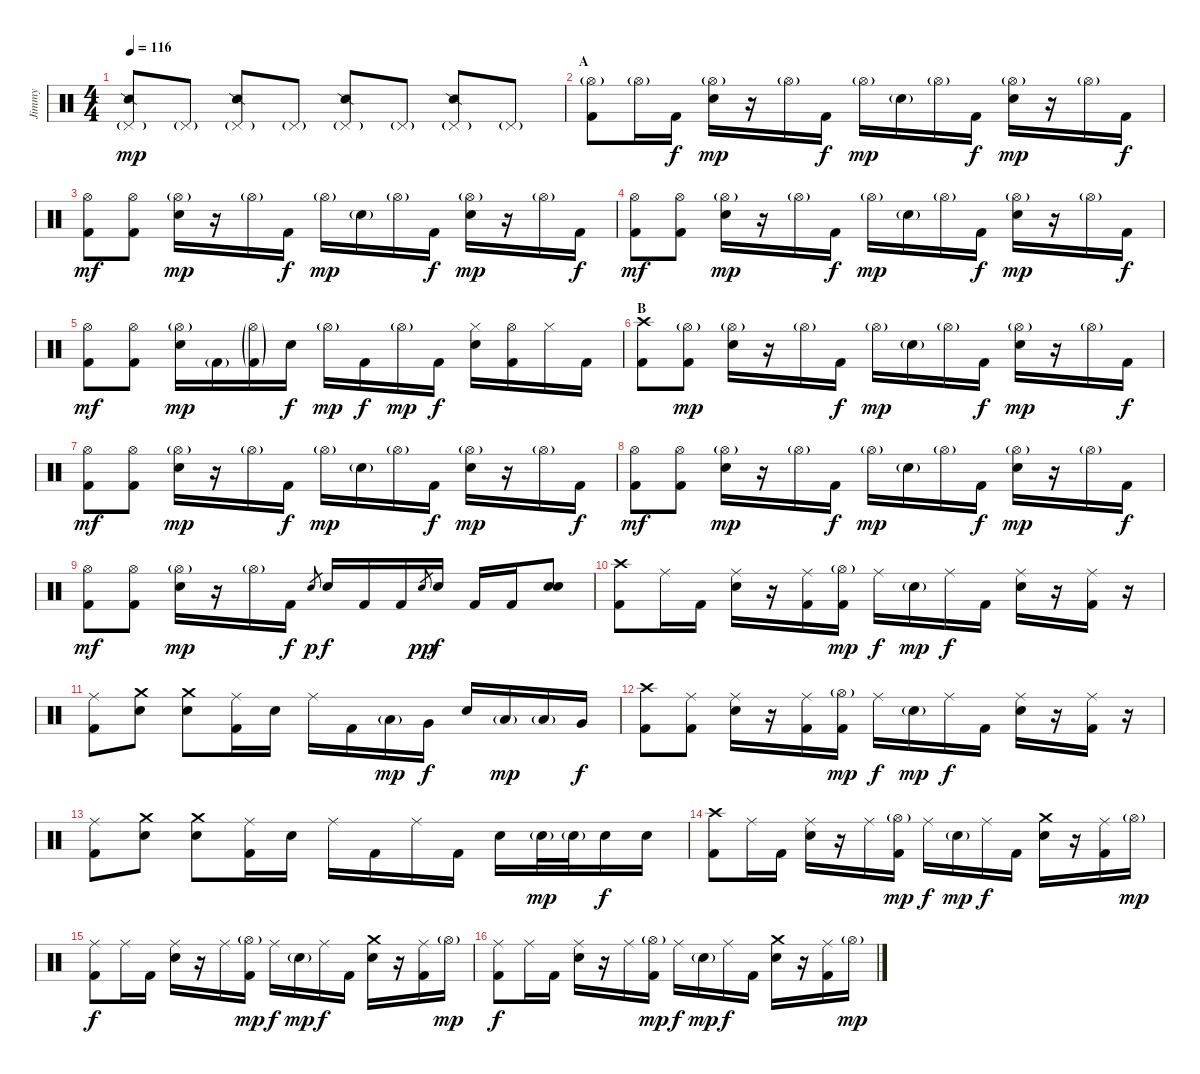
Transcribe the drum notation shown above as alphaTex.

\track ("Jimmy" "Jimmy") {instrument percussion}
\staff {score}
\articulation defaults
\ts (4 4)
\tempo 116
\clef neutral
\ks c
("Pedal Hi-Hat (hit)"{g} "Snare (side stick) 2").8{dy mp} "Pedal Hi-Hat (hit)"{g}.8 ("Pedal Hi-Hat (hit)"{g} "Snare (side stick) 2").8 "Pedal Hi-Hat (hit)"{g}.8 ("Pedal Hi-Hat (hit)"{g} "Snare (side stick) 2").8 "Pedal Hi-Hat (hit)"{g}.8 ("Pedal Hi-Hat (hit)"{g} "Snare (side stick) 2").8 "Pedal Hi-Hat (hit)"{g}.8 |
\section ("" "A")
("Hi-Hat (open)"{g} "Kick (hit) 2").8 "Hi-Hat (open)"{g}.16 "Kick (hit) 2".16{dy f} ("Hi-Hat (open)"{g} "Electric Snare (hit)").16{dy mp} r.16 "Hi-Hat (open)"{g}.16 "Kick (hit) 2".16{dy f} "Hi-Hat (open)"{g}.16{dy mp} "Electric Snare (hit)"{g}.16 "Hi-Hat (open)"{g}.16 "Kick (hit) 2".16{dy f} ("Hi-Hat (open)"{g} "Electric Snare (hit)").16{dy mp} r.16 "Hi-Hat (open)"{g}.16 "Kick (hit) 2".16{dy f} |
("Hi-Hat (open)" "Kick (hit) 2").8{dy mf} ("Hi-Hat (open)" "Kick (hit) 2").8 ("Hi-Hat (open)"{g} "Electric Snare (hit)").16{dy mp} r.16 "Hi-Hat (open)"{g}.16 "Kick (hit) 2".16{dy f} "Hi-Hat (open)"{g}.16{dy mp} "Electric Snare (hit)"{g}.16 "Hi-Hat (open)"{g}.16 "Kick (hit) 2".16{dy f} ("Hi-Hat (open)"{g} "Electric Snare (hit)").16{dy mp} r.16 "Hi-Hat (open)"{g}.16 "Kick (hit) 2".16{dy f} |
("Hi-Hat (open)" "Kick (hit) 2").8{dy mf} ("Hi-Hat (open)" "Kick (hit) 2").8 ("Hi-Hat (open)"{g} "Electric Snare (hit)").16{dy mp} r.16 "Hi-Hat (open)"{g}.16 "Kick (hit) 2".16{dy f} "Hi-Hat (open)"{g}.16{dy mp} "Electric Snare (hit)"{g}.16 "Hi-Hat (open)"{g}.16 "Kick (hit) 2".16{dy f} ("Hi-Hat (open)"{g} "Electric Snare (hit)").16{dy mp} r.16 "Hi-Hat (open)"{g}.16 "Kick (hit) 2".16{dy f} |
("Hi-Hat (open)" "Kick (hit) 2").8{dy mf} ("Hi-Hat (open)" "Kick (hit) 2").8 ("Hi-Hat (open)"{g} "Electric Snare (hit)").16{dy mp} "Kick (hit) 2"{g}.16 ("Hi-Hat (open)"{g} "Kick (hit) 2"{g}).16 "Electric Snare (hit)".16{dy f} "Hi-Hat (open)"{g}.16{dy mp} "Kick (hit) 2".16{dy f} "Hi-Hat (open)"{g}.16{dy mp} "Kick (hit) 2".16{dy f} ("Hi-Hat (closed)" "Electric Snare (hit)").16 ("Hi-Hat (open)" "Kick (hit) 2").16 "Hi-Hat (closed)".16 "Kick (hit) 2".16 |
\section ("" "B")
("Crash high (hit)" "Kick (hit) 2").8 ("Hi-Hat (open)"{g} "Kick (hit) 2").8{dy mp} ("Hi-Hat (open)"{g} "Electric Snare (hit)").16 r.16 "Hi-Hat (open)"{g}.16 "Kick (hit) 2".16{dy f} "Hi-Hat (open)"{g}.16{dy mp} "Electric Snare (hit)"{g}.16 "Hi-Hat (open)"{g}.16 "Kick (hit) 2".16{dy f} ("Hi-Hat (open)"{g} "Electric Snare (hit)").16{dy mp} r.16 "Hi-Hat (open)"{g}.16 "Kick (hit) 2".16{dy f} |
("Hi-Hat (open)" "Kick (hit) 2").8{dy mf} ("Hi-Hat (open)" "Kick (hit) 2").8 ("Hi-Hat (open)"{g} "Electric Snare (hit)").16{dy mp} r.16 "Hi-Hat (open)"{g}.16 "Kick (hit) 2".16{dy f} "Hi-Hat (open)"{g}.16{dy mp} "Electric Snare (hit)"{g}.16 "Hi-Hat (open)"{g}.16 "Kick (hit) 2".16{dy f} ("Hi-Hat (open)"{g} "Electric Snare (hit)").16{dy mp} r.16 "Hi-Hat (open)"{g}.16 "Kick (hit) 2".16{dy f} |
("Hi-Hat (open)" "Kick (hit) 2").8{dy mf} ("Hi-Hat (open)" "Kick (hit) 2").8 ("Hi-Hat (open)"{g} "Electric Snare (hit)").16{dy mp} r.16 "Hi-Hat (open)"{g}.16 "Kick (hit) 2".16{dy f} "Hi-Hat (open)"{g}.16{dy mp} "Electric Snare (hit)"{g}.16 "Hi-Hat (open)"{g}.16 "Kick (hit) 2".16{dy f} ("Hi-Hat (open)"{g} "Electric Snare (hit)").16{dy mp} r.16 "Hi-Hat (open)"{g}.16 "Kick (hit) 2".16{dy f} |
("Hi-Hat (open)" "Kick (hit) 2").8{dy mf} ("Hi-Hat (open)" "Kick (hit) 2").8 ("Hi-Hat (open)"{g} "Electric Snare (hit)").16{dy mp} r.16 "Hi-Hat (open)"{g}.16 "Kick (hit) 2".16{dy f} "Electric Snare (hit)".8{gr dy p} "Electric Snare (hit)".16{dy f} "Kick (hit) 2".16 "Kick (hit) 2".16 "Electric Snare (hit)".8{gr dy pp} "Electric Snare (hit)".16{dy f} "Kick (hit) 2".16 "Kick (hit) 2".16 ("Electric Snare (hit)" "Electric Snare (hit)").8 |
("Crash high (hit)" "Kick (hit) 2").8 "Ride (middle)".16 "Kick (hit) 2".16 ("Ride (middle)" "Electric Snare (hit)").16 r.16 ("Ride (middle)" "Kick (hit) 2").16 ("Hi-Hat (open)"{g} "Kick (hit) 2").16{dy mp} "Ride (middle)".16{dy f} "Electric Snare (hit)"{g}.16{dy mp} "Ride (middle)".16{dy f} "Kick (hit) 2".16 ("Ride (middle)" "Electric Snare (hit)").16 r.16 ("Ride (middle)" "Kick (hit) 2").16 r.16 |
("Ride (middle)" "Kick (hit) 2").8 ("Crash medium (hit)" "Electric Snare (hit)").8 ("Crash medium (hit)" "Electric Snare (hit)").8 ("Ride (middle)" "Kick (hit) 2").16 "Electric Snare (hit)".16 "Ride (middle)".16 "Kick (hit) 2".16 "Low Tom (hit)"{g}.16{dy mp} "Very Low Tom (hit)".16{dy f} "Electric Snare (hit)".16 "Low Tom (hit)"{g}.16{dy mp} "Low Tom (hit)"{g}.16 "Very Low Tom (hit)".16{dy f} |
("Crash high (hit)" "Kick (hit) 2").8 ("Ride (middle)" "Kick (hit) 2").8 ("Ride (middle)" "Electric Snare (hit)").16 r.16 ("Ride (middle)" "Kick (hit) 2").16 ("Hi-Hat (open)"{g} "Kick (hit) 2").16{dy mp} "Ride (middle)".16{dy f} "Electric Snare (hit)"{g}.16{dy mp} "Ride (middle)".16{dy f} "Kick (hit) 2".16 ("Ride (middle)" "Electric Snare (hit)").16 r.16 ("Ride (middle)" "Kick (hit) 2").16 r.16 |
("Ride (middle)" "Kick (hit) 2").8 ("Crash medium (hit)" "Electric Snare (hit)").8 ("Crash medium (hit)" "Electric Snare (hit)").8 ("Ride (middle)" "Kick (hit) 2").16 "Electric Snare (hit)".16 "Ride (middle)".16 "Kick (hit) 2".16 "Ride (middle)".16 "Kick (hit) 2".16 "Electric Snare (hit)".16 "Electric Snare (hit)"{g}.32{dy mp} "Electric Snare (hit)"{g}.32 "Electric Snare (hit)".16{dy f} "Electric Snare (hit)".16 |
("Crash high (hit)" "Kick (hit) 2").8 "Ride (middle)".16 "Kick (hit) 2".16 ("Ride (middle)" "Electric Snare (hit)").16 r.16 "Ride (middle)".16 ("Hi-Hat (open)"{g} "Kick (hit) 2").16{dy mp} "Ride (middle)".16{dy f} "Electric Snare (hit)"{g}.16{dy mp} "Ride (middle)".16{dy f} "Kick (hit) 2".16 ("Crash medium (hit)" "Electric Snare (hit)").16 r.16 ("Ride (middle)" "Kick (hit) 2").16 "Hi-Hat (open)"{g}.16{dy mp} |
("Ride (middle)" "Kick (hit) 2").8{dy f} "Ride (middle)".16 "Kick (hit) 2".16 ("Ride (middle)" "Electric Snare (hit)").16 r.16 "Ride (middle)".16 ("Hi-Hat (open)"{g} "Kick (hit) 2").16{dy mp} "Ride (middle)".16{dy f} "Electric Snare (hit)"{g}.16{dy mp} "Ride (middle)".16{dy f} "Kick (hit) 2".16 ("Crash medium (hit)" "Electric Snare (hit)").16 r.16 ("Ride (middle)" "Kick (hit) 2").16 "Hi-Hat (open)"{g}.16{dy mp} |
("Ride (middle)" "Kick (hit) 2").8{dy f} "Ride (middle)".16 "Kick (hit) 2".16 ("Ride (middle)" "Electric Snare (hit)").16 r.16 "Ride (middle)".16 ("Hi-Hat (open)"{g} "Kick (hit) 2").16{dy mp} "Ride (middle)".16{dy f} "Electric Snare (hit)"{g}.16{dy mp} "Ride (middle)".16{dy f} "Kick (hit) 2".16 ("Crash medium (hit)" "Electric Snare (hit)").16 r.16 ("Ride (middle)" "Kick (hit) 2").16 "Hi-Hat (open)"{g}.16{dy mp}
